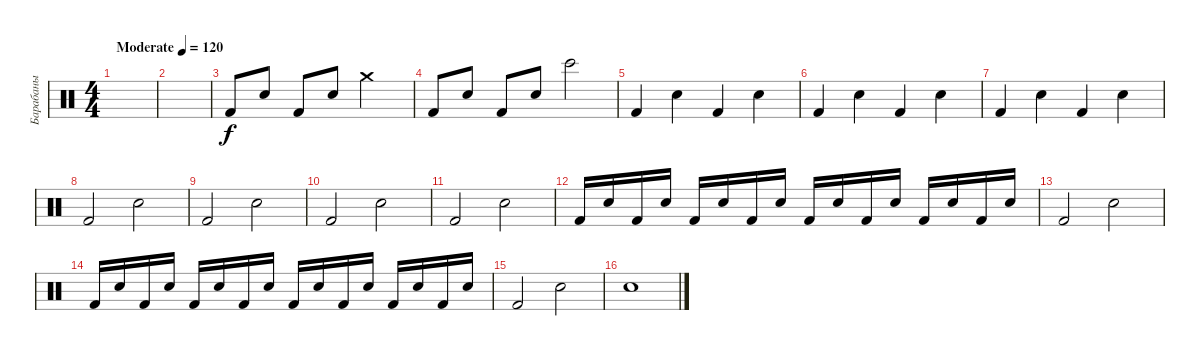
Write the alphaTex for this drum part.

\track ("Барабаны" "Барабаны") {instrument percussion}
\staff {score}
\articulation defaults
\ts (4 4)
\tempo (120 "Moderate")
\clef neutral
\ks c
|
|
"Kick (hit) 2".8 "Snare (hit) 2".8 "Kick (hit) 2".8 "Snare (hit) 2".8 "Crash medium (hit)".2 |
"Kick (hit) 2".8 "Snare (hit) 2".8 "Kick (hit) 2".8 "Snare (hit) 2".8 "Bongo High (hit)".2 |
"Kick (hit) 2".4 "Hand Clap (hit)".4 "Kick (hit) 2".4 "Hand Clap (hit)".4 |
"Kick (hit) 2".4 "Hand Clap (hit)".4 "Kick (hit) 2".4 "Hand Clap (hit)".4 |
"Kick (hit) 2".4 "Hand Clap (hit)".4 "Kick (hit) 2".4 "Hand Clap (hit)".4 |
"Kick (hit) 2".2 "Snare (hit) 2".2 |
"Kick (hit) 2".2 "Snare (hit) 2".2 |
"Kick (hit) 2".2 "Snare (hit) 2".2 |
"Kick (hit) 2".2 "Snare (hit) 2".2 |
"Kick (hit) 2".16 "Snare (hit) 2".16 "Kick (hit) 2".16 "Snare (hit) 2".16 "Kick (hit) 2".16 "Snare (hit) 2".16 "Kick (hit) 2".16 "Snare (hit) 2".16 "Kick (hit) 2".16 "Snare (hit) 2".16 "Kick (hit) 2".16 "Snare (hit) 2".16 "Kick (hit) 2".16 "Snare (hit) 2".16 "Kick (hit) 2".16 "Snare (hit) 2".16 |
"Kick (hit) 2".2 "Snare (hit) 2".2 |
"Kick (hit) 2".16 "Snare (hit) 2".16 "Kick (hit) 2".16 "Snare (hit) 2".16 "Kick (hit) 2".16 "Snare (hit) 2".16 "Kick (hit) 2".16 "Snare (hit) 2".16 "Kick (hit) 2".16 "Snare (hit) 2".16 "Kick (hit) 2".16 "Snare (hit) 2".16 "Kick (hit) 2".16 "Snare (hit) 2".16 "Kick (hit) 2".16 "Snare (hit) 2".16 |
"Kick (hit) 2".2 "Snare (hit) 2".2 |
"Snare (hit) 2".1
